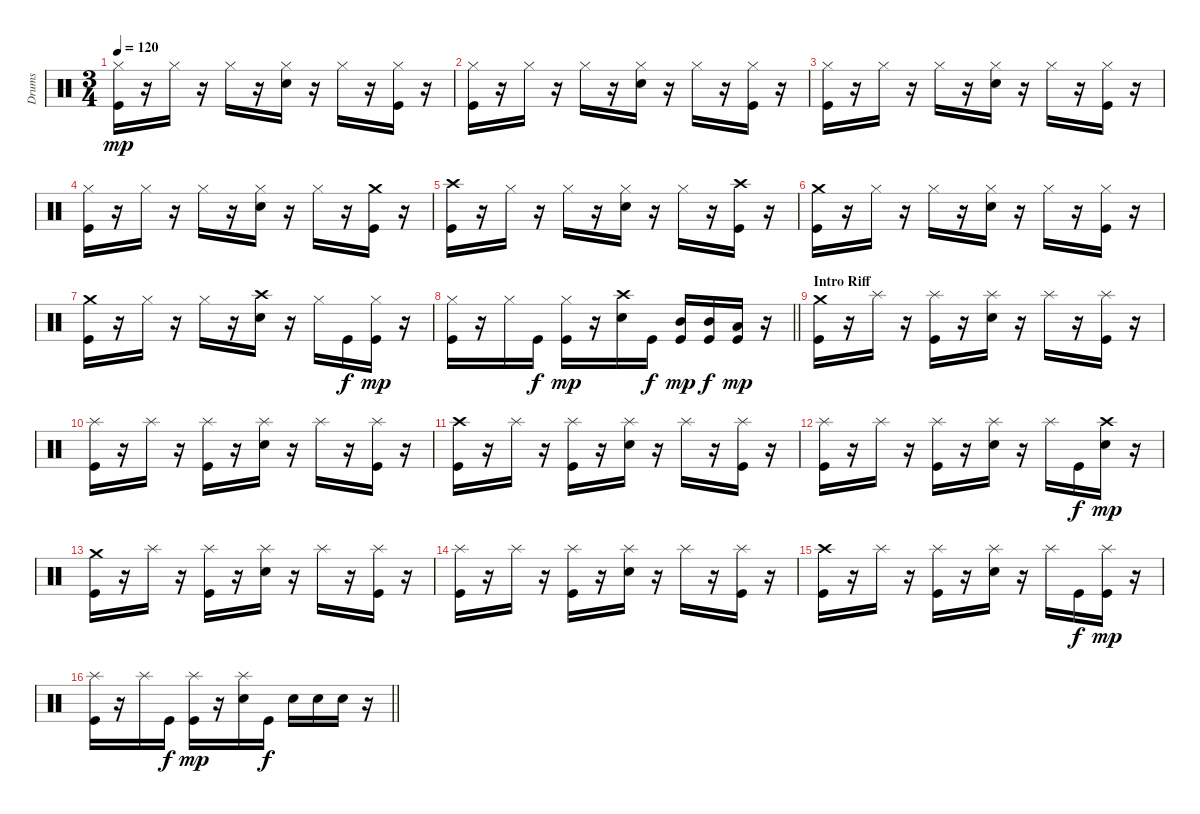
\track ("Drums" "Drums") {instrument percussion}
\staff {score}
\articulation defaults
\ts (3 4)
\tempo 120
\clef neutral
\ks c
("Kick (hit)" "Hi-Hat (closed)").16{dy mp} r.16 "Hi-Hat (closed)".16 r.16 "Hi-Hat (closed)".16 r.16 ("Hi-Hat (closed)" "Snare (hit) 2").16 r.16 "Hi-Hat (closed)".16 r.16 ("Kick (hit)" "Hi-Hat (closed)").16 r.16 |
("Kick (hit)" "Hi-Hat (closed)").16 r.16 "Hi-Hat (closed)".16 r.16 "Hi-Hat (closed)".16 r.16 ("Hi-Hat (closed)" "Snare (hit) 2").16 r.16 "Hi-Hat (closed)".16 r.16 ("Kick (hit)" "Hi-Hat (closed)").16 r.16 |
("Kick (hit)" "Hi-Hat (closed)").16 r.16 "Hi-Hat (closed)".16 r.16 "Hi-Hat (closed)".16 r.16 ("Hi-Hat (closed)" "Snare (hit) 2").16 r.16 "Hi-Hat (closed)".16 r.16 ("Kick (hit)" "Hi-Hat (closed)").16 r.16 |
("Kick (hit)" "Hi-Hat (closed)").16 r.16 "Hi-Hat (closed)".16 r.16 "Hi-Hat (closed)".16 r.16 ("Hi-Hat (closed)" "Snare (hit) 2").16 r.16 "Hi-Hat (closed)".16 r.16 ("Kick (hit)" "Crash medium (hit)").16 r.16 |
("Kick (hit)" "Crash high (hit)").16 r.16 "Hi-Hat (closed)".16 r.16 "Hi-Hat (closed)".16 r.16 ("Hi-Hat (closed)" "Snare (hit) 2").16 r.16 "Hi-Hat (closed)".16 r.16 ("Kick (hit)" "Crash high (hit)").16 r.16 |
("Kick (hit)" "Crash medium (hit)").16 r.16 "Hi-Hat (closed)".16 r.16 "Hi-Hat (closed)".16 r.16 ("Hi-Hat (closed)" "Snare (hit) 2").16 r.16 "Hi-Hat (closed)".16 r.16 ("Kick (hit)" "Hi-Hat (closed)").16 r.16 |
("Kick (hit)" "Crash medium (hit)").16 r.16 "Hi-Hat (closed)".16 r.16 "Hi-Hat (closed)".16 r.16 ("Crash high (hit)" "Snare (hit) 2").16 r.16 "Hi-Hat (closed)".16 "Kick (hit)".16{dy f} ("Kick (hit)" "Hi-Hat (closed)").16{dy mp} r.16 |
\barLineRight lightlight
("Kick (hit)" "Hi-Hat (closed)").16 r.16 "Hi-Hat (closed)".16 "Kick (hit)".16{dy f} ("Kick (hit)" "Hi-Hat (closed)").16{dy mp} r.16 ("Crash high (hit)" "Snare (hit) 2").16 "Kick (hit)".16{dy f} ("Kick (hit)" "Mid Tom (hit)").16{dy mp} ("Kick (hit)" "Mid Tom (hit)").16{dy f} ("Kick (hit)" "Low Tom (hit)").16{dy mp} r.16 |
\section ("" "Intro Riff")
("Kick (hit)" "Crash medium (hit)").16 r.16 "Splash (hit)".16 r.16 ("Kick (hit)" "Splash (hit)").16 r.16 ("Splash (hit)" "Snare (hit) 2").16 r.16 "Splash (hit)".16 r.16 ("Kick (hit)" "Splash (hit)").16 r.16 |
("Kick (hit)" "Splash (hit)").16 r.16 "Splash (hit)".16 r.16 ("Kick (hit)" "Splash (hit)").16 r.16 ("Splash (hit)" "Snare (hit) 2").16 r.16 "Splash (hit)".16 r.16 ("Kick (hit)" "Splash (hit)").16 r.16 |
("Kick (hit)" "Crash high (hit)").16 r.16 "Splash (hit)".16 r.16 ("Kick (hit)" "Splash (hit)").16 r.16 ("Splash (hit)" "Snare (hit) 2").16 r.16 "Splash (hit)".16 r.16 ("Kick (hit)" "Splash (hit)").16 r.16 |
("Kick (hit)" "Splash (hit)").16 r.16 "Splash (hit)".16 r.16 ("Kick (hit)" "Splash (hit)").16 r.16 ("Splash (hit)" "Snare (hit) 2").16 r.16 "Splash (hit)".16 "Kick (hit)".16{dy f} ("Crash high (hit)" "Snare (hit) 2").16{dy mp} r.16 |
("Kick (hit)" "Crash medium (hit)").16 r.16 "Splash (hit)".16 r.16 ("Kick (hit)" "Splash (hit)").16 r.16 ("Splash (hit)" "Snare (hit) 2").16 r.16 "Splash (hit)".16 r.16 ("Kick (hit)" "Splash (hit)").16 r.16 |
("Kick (hit)" "Splash (hit)").16 r.16 "Splash (hit)".16 r.16 ("Kick (hit)" "Splash (hit)").16 r.16 ("Splash (hit)" "Snare (hit) 2").16 r.16 "Splash (hit)".16 r.16 ("Kick (hit)" "Splash (hit)").16 r.16 |
("Kick (hit)" "Crash high (hit)").16 r.16 "Splash (hit)".16 r.16 ("Kick (hit)" "Splash (hit)").16 r.16 ("Splash (hit)" "Snare (hit) 2").16 r.16 "Splash (hit)".16 "Kick (hit)".16{dy f} ("Kick (hit)" "Splash (hit)").16{dy mp} r.16 |
\barLineRight lightlight
("Kick (hit)" "Splash (hit)").16 r.16 "Splash (hit)".16 "Kick (hit)".16{dy f} ("Kick (hit)" "Splash (hit)").16{dy mp} r.16 ("Splash (hit)" "Snare (hit) 2").16 "Kick (hit)".16{dy f} "Snare (hit) 2".16 "Snare (hit) 2".16 "Snare (hit) 2".16 r.16
